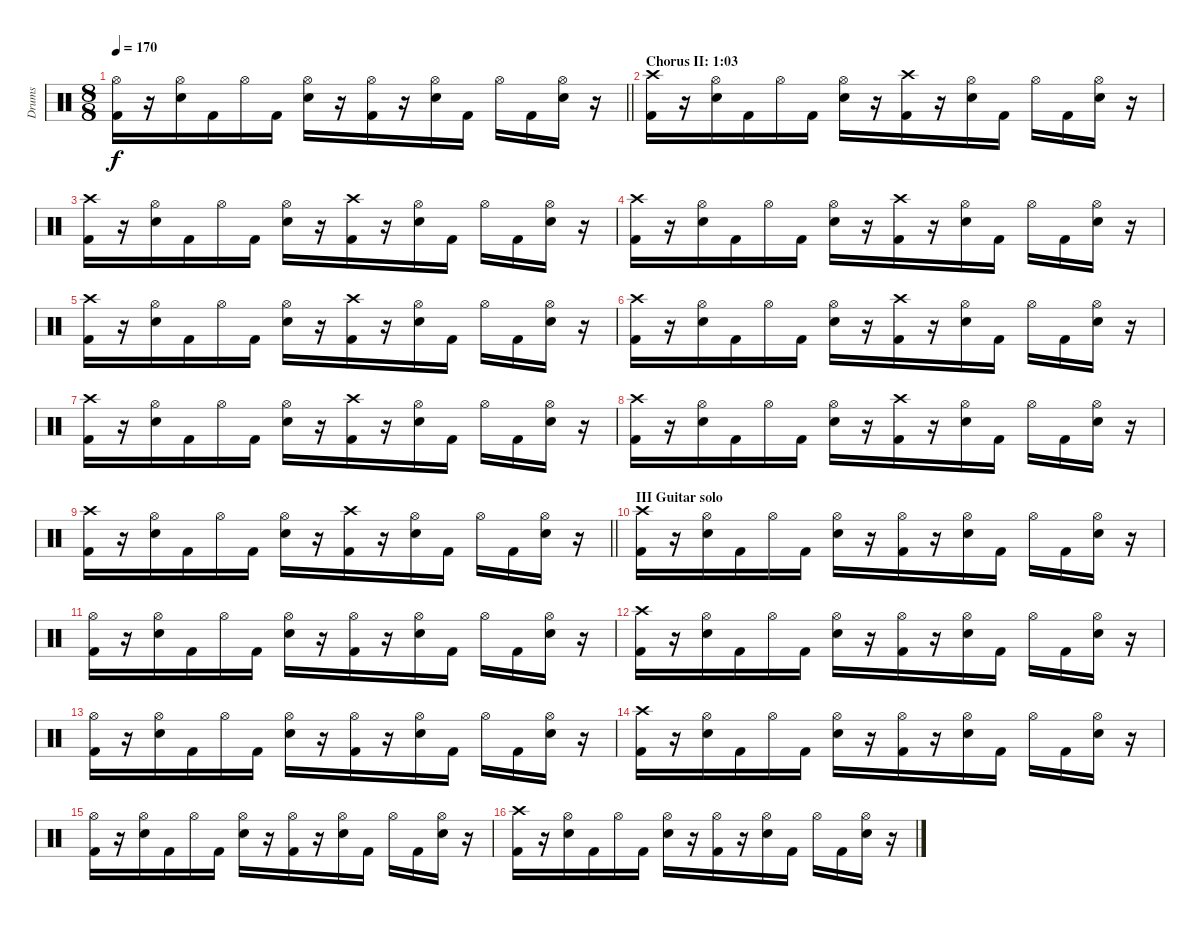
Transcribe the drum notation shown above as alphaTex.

\track ("Drums" "Drums") {mute instrument percussion}
\staff {score}
\articulation defaults
\ts (8 8)
\tempo 170
\clef neutral
\barLineRight lightlight
\ks c
("Hi-Hat (open)" "Kick (hit) 2").16{dy f} r.16 ("Hi-Hat (open)" "Snare (hit) 2").16 "Kick (hit) 2".16 "Hi-Hat (open)".16 "Kick (hit) 2".16 ("Hi-Hat (open)" "Snare (hit) 2").16 r.16 ("Hi-Hat (open)" "Kick (hit) 2").16 r.16 ("Hi-Hat (open)" "Snare (hit) 2").16 "Kick (hit) 2".16 "Hi-Hat (open)".16 "Kick (hit) 2".16 ("Hi-Hat (open)" "Snare (hit) 2").16 r.16 |
\section ("" "Chorus II: 1:03")
("Crash high (hit)" "Kick (hit) 2").16 r.16 ("Hi-Hat (open)" "Snare (hit) 2").16 "Kick (hit) 2".16 "Hi-Hat (open)".16 "Kick (hit) 2".16 ("Hi-Hat (open)" "Snare (hit) 2").16 r.16 ("Crash high (hit)" "Kick (hit) 2").16 r.16 ("Hi-Hat (open)" "Snare (hit) 2").16 "Kick (hit) 2".16 "Hi-Hat (open)".16 "Kick (hit) 2".16 ("Hi-Hat (open)" "Snare (hit) 2").16 r.16 |
("Crash high (hit)" "Kick (hit) 2").16 r.16 ("Hi-Hat (open)" "Snare (hit) 2").16 "Kick (hit) 2".16 "Hi-Hat (open)".16 "Kick (hit) 2".16 ("Hi-Hat (open)" "Snare (hit) 2").16 r.16 ("Crash high (hit)" "Kick (hit) 2").16 r.16 ("Hi-Hat (open)" "Snare (hit) 2").16 "Kick (hit) 2".16 "Hi-Hat (open)".16 "Kick (hit) 2".16 ("Hi-Hat (open)" "Snare (hit) 2").16 r.16 |
("Crash high (hit)" "Kick (hit) 2").16 r.16 ("Hi-Hat (open)" "Snare (hit) 2").16 "Kick (hit) 2".16 "Hi-Hat (open)".16 "Kick (hit) 2".16 ("Hi-Hat (open)" "Snare (hit) 2").16 r.16 ("Crash high (hit)" "Kick (hit) 2").16 r.16 ("Hi-Hat (open)" "Snare (hit) 2").16 "Kick (hit) 2".16 "Hi-Hat (open)".16 "Kick (hit) 2".16 ("Hi-Hat (open)" "Snare (hit) 2").16 r.16 |
("Crash high (hit)" "Kick (hit) 2").16 r.16 ("Hi-Hat (open)" "Snare (hit) 2").16 "Kick (hit) 2".16 "Hi-Hat (open)".16 "Kick (hit) 2".16 ("Hi-Hat (open)" "Snare (hit) 2").16 r.16 ("Crash high (hit)" "Kick (hit) 2").16 r.16 ("Hi-Hat (open)" "Snare (hit) 2").16 "Kick (hit) 2".16 "Hi-Hat (open)".16 "Kick (hit) 2".16 ("Hi-Hat (open)" "Snare (hit) 2").16 r.16 |
("Crash high (hit)" "Kick (hit) 2").16 r.16 ("Hi-Hat (open)" "Snare (hit) 2").16 "Kick (hit) 2".16 "Hi-Hat (open)".16 "Kick (hit) 2".16 ("Hi-Hat (open)" "Snare (hit) 2").16 r.16 ("Crash high (hit)" "Kick (hit) 2").16 r.16 ("Hi-Hat (open)" "Snare (hit) 2").16 "Kick (hit) 2".16 "Hi-Hat (open)".16 "Kick (hit) 2".16 ("Hi-Hat (open)" "Snare (hit) 2").16 r.16 |
("Crash high (hit)" "Kick (hit) 2").16 r.16 ("Hi-Hat (open)" "Snare (hit) 2").16 "Kick (hit) 2".16 "Hi-Hat (open)".16 "Kick (hit) 2".16 ("Hi-Hat (open)" "Snare (hit) 2").16 r.16 ("Crash high (hit)" "Kick (hit) 2").16 r.16 ("Hi-Hat (open)" "Snare (hit) 2").16 "Kick (hit) 2".16 "Hi-Hat (open)".16 "Kick (hit) 2".16 ("Hi-Hat (open)" "Snare (hit) 2").16 r.16 |
("Crash high (hit)" "Kick (hit) 2").16 r.16 ("Hi-Hat (open)" "Snare (hit) 2").16 "Kick (hit) 2".16 "Hi-Hat (open)".16 "Kick (hit) 2".16 ("Hi-Hat (open)" "Snare (hit) 2").16 r.16 ("Crash high (hit)" "Kick (hit) 2").16 r.16 ("Hi-Hat (open)" "Snare (hit) 2").16 "Kick (hit) 2".16 "Hi-Hat (open)".16 "Kick (hit) 2".16 ("Hi-Hat (open)" "Snare (hit) 2").16 r.16 |
\barLineRight lightlight
("Crash high (hit)" "Kick (hit) 2").16 r.16 ("Hi-Hat (open)" "Snare (hit) 2").16 "Kick (hit) 2".16 "Hi-Hat (open)".16 "Kick (hit) 2".16 ("Hi-Hat (open)" "Snare (hit) 2").16 r.16 ("Crash high (hit)" "Kick (hit) 2").16 r.16 ("Hi-Hat (open)" "Snare (hit) 2").16 "Kick (hit) 2".16 "Hi-Hat (open)".16 "Kick (hit) 2".16 ("Hi-Hat (open)" "Snare (hit) 2").16 r.16 |
\section ("" "III Guitar solo")
("Crash high (hit)" "Kick (hit) 2").16 r.16 ("Hi-Hat (open)" "Snare (hit) 2").16 "Kick (hit) 2".16 "Hi-Hat (open)".16 "Kick (hit) 2".16 ("Hi-Hat (open)" "Snare (hit) 2").16 r.16 ("Hi-Hat (open)" "Kick (hit) 2").16 r.16 ("Hi-Hat (open)" "Snare (hit) 2").16 "Kick (hit) 2".16 "Hi-Hat (open)".16 "Kick (hit) 2".16 ("Hi-Hat (open)" "Snare (hit) 2").16 r.16 |
("Hi-Hat (open)" "Kick (hit) 2").16 r.16 ("Hi-Hat (open)" "Snare (hit) 2").16 "Kick (hit) 2".16 "Hi-Hat (open)".16 "Kick (hit) 2".16 ("Hi-Hat (open)" "Snare (hit) 2").16 r.16 ("Hi-Hat (open)" "Kick (hit) 2").16 r.16 ("Hi-Hat (open)" "Snare (hit) 2").16 "Kick (hit) 2".16 "Hi-Hat (open)".16 "Kick (hit) 2".16 ("Hi-Hat (open)" "Snare (hit) 2").16 r.16 |
("Crash high (hit)" "Kick (hit) 2").16 r.16 ("Hi-Hat (open)" "Snare (hit) 2").16 "Kick (hit) 2".16 "Hi-Hat (open)".16 "Kick (hit) 2".16 ("Hi-Hat (open)" "Snare (hit) 2").16 r.16 ("Hi-Hat (open)" "Kick (hit) 2").16 r.16 ("Hi-Hat (open)" "Snare (hit) 2").16 "Kick (hit) 2".16 "Hi-Hat (open)".16 "Kick (hit) 2".16 ("Hi-Hat (open)" "Snare (hit) 2").16 r.16 |
("Hi-Hat (open)" "Kick (hit) 2").16 r.16 ("Hi-Hat (open)" "Snare (hit) 2").16 "Kick (hit) 2".16 "Hi-Hat (open)".16 "Kick (hit) 2".16 ("Hi-Hat (open)" "Snare (hit) 2").16 r.16 ("Hi-Hat (open)" "Kick (hit) 2").16 r.16 ("Hi-Hat (open)" "Snare (hit) 2").16 "Kick (hit) 2".16 "Hi-Hat (open)".16 "Kick (hit) 2".16 ("Hi-Hat (open)" "Snare (hit) 2").16 r.16 |
("Crash high (hit)" "Kick (hit) 2").16 r.16 ("Hi-Hat (open)" "Snare (hit) 2").16 "Kick (hit) 2".16 "Hi-Hat (open)".16 "Kick (hit) 2".16 ("Hi-Hat (open)" "Snare (hit) 2").16 r.16 ("Hi-Hat (open)" "Kick (hit) 2").16 r.16 ("Hi-Hat (open)" "Snare (hit) 2").16 "Kick (hit) 2".16 "Hi-Hat (open)".16 "Kick (hit) 2".16 ("Hi-Hat (open)" "Snare (hit) 2").16 r.16 |
("Hi-Hat (open)" "Kick (hit) 2").16 r.16 ("Hi-Hat (open)" "Snare (hit) 2").16 "Kick (hit) 2".16 "Hi-Hat (open)".16 "Kick (hit) 2".16 ("Hi-Hat (open)" "Snare (hit) 2").16 r.16 ("Hi-Hat (open)" "Kick (hit) 2").16 r.16 ("Hi-Hat (open)" "Snare (hit) 2").16 "Kick (hit) 2".16 "Hi-Hat (open)".16 "Kick (hit) 2".16 ("Hi-Hat (open)" "Snare (hit) 2").16 r.16 |
("Crash high (hit)" "Kick (hit) 2").16 r.16 ("Hi-Hat (open)" "Snare (hit) 2").16 "Kick (hit) 2".16 "Hi-Hat (open)".16 "Kick (hit) 2".16 ("Hi-Hat (open)" "Snare (hit) 2").16 r.16 ("Hi-Hat (open)" "Kick (hit) 2").16 r.16 ("Hi-Hat (open)" "Snare (hit) 2").16 "Kick (hit) 2".16 "Hi-Hat (open)".16 "Kick (hit) 2".16 ("Hi-Hat (open)" "Snare (hit) 2").16 r.16
